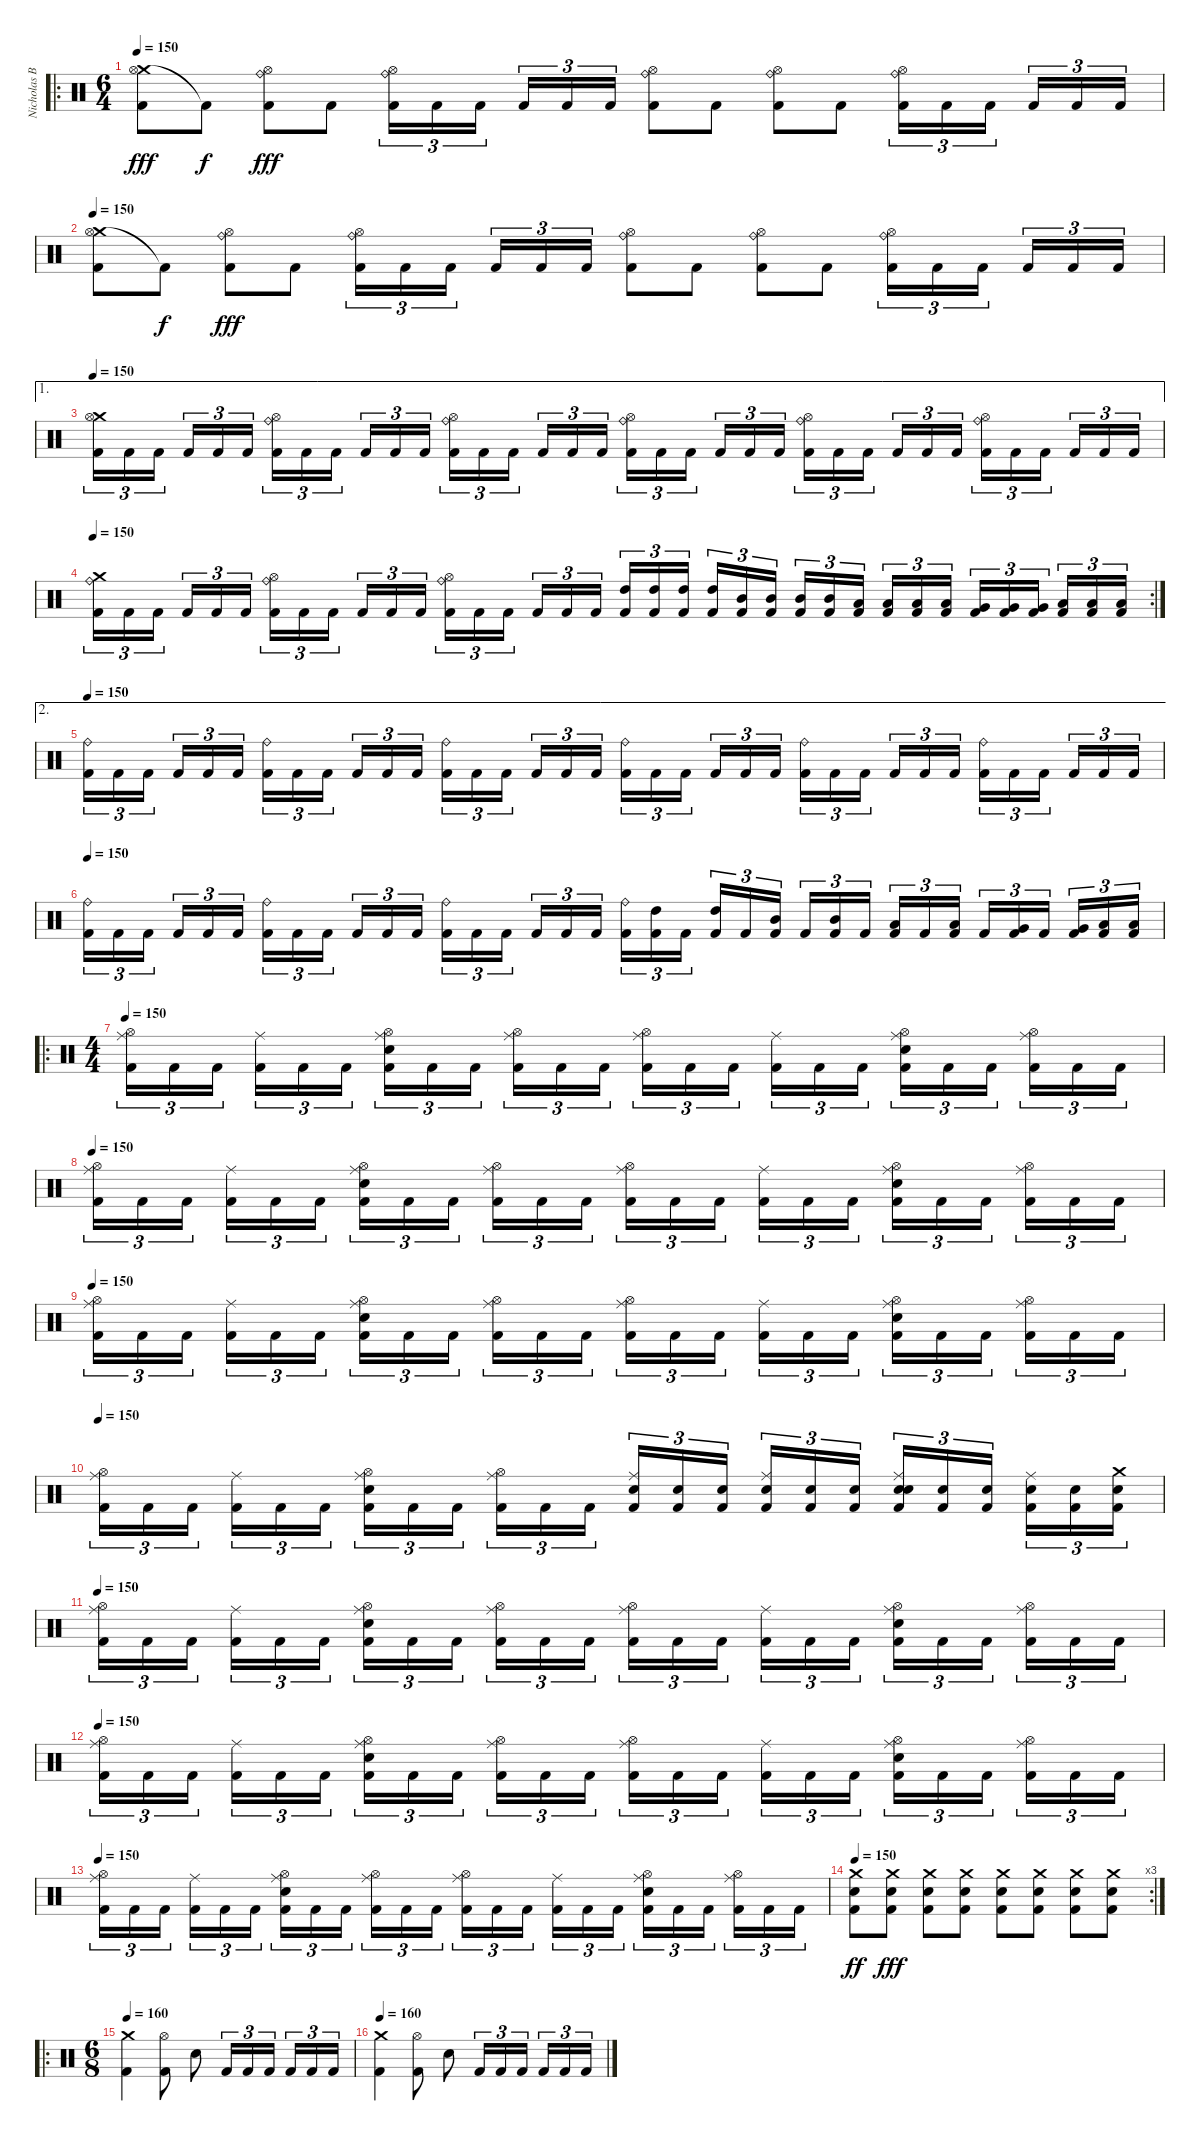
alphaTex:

\track ("Nicholas Barker - (Drums And Percussion)" "Nicholas B") {instrument percussion}
\staff {score}
\articulation defaults
\ro
\ts (6 4)
\tempo 150
\clef neutral
\ks c
("Crash medium (hit)" "Hi-Hat (open)" "Kick (hit) 2").8{dy fff} "Kick (hit) 2"{t}.8{dy f} ("Ride (bell)" "Hi-Hat (open)" "Kick (hit) 2").8{dy fff} "Kick (hit) 2".8 ("Ride (bell)" "Hi-Hat (open)" "Kick (hit) 2").16{tu (3 2)} "Kick (hit) 2".16{tu (3 2)} "Kick (hit) 2".16{tu (3 2)} "Kick (hit) 2".16{tu (3 2)} "Kick (hit) 2".16{tu (3 2)} "Kick (hit) 2".16{tu (3 2)} ("Ride (bell)" "Hi-Hat (open)" "Kick (hit) 2").8 "Kick (hit) 2".8 ("Ride (bell)" "Hi-Hat (open)" "Kick (hit) 2").8 "Kick (hit) 2".8 ("Ride (bell)" "Hi-Hat (open)" "Kick (hit) 2").16{tu (3 2)} "Kick (hit) 2".16{tu (3 2)} "Kick (hit) 2".16{tu (3 2)} "Kick (hit) 2".16{tu (3 2)} "Kick (hit) 2".16{tu (3 2)} "Kick (hit) 2".16{tu (3 2)} |
\tempo 150
("Crash medium (hit)" "Hi-Hat (open)" "Kick (hit) 2").8 "Kick (hit) 2"{t}.8{dy f} ("Ride (bell)" "Hi-Hat (open)" "Kick (hit) 2").8{dy fff} "Kick (hit) 2".8 ("Ride (bell)" "Hi-Hat (open)" "Kick (hit) 2").16{tu (3 2)} "Kick (hit) 2".16{tu (3 2)} "Kick (hit) 2".16{tu (3 2)} "Kick (hit) 2".16{tu (3 2)} "Kick (hit) 2".16{tu (3 2)} "Kick (hit) 2".16{tu (3 2)} ("Ride (bell)" "Hi-Hat (open)" "Kick (hit) 2").8 "Kick (hit) 2".8 ("Ride (bell)" "Hi-Hat (open)" "Kick (hit) 2").8 "Kick (hit) 2".8 ("Ride (bell)" "Hi-Hat (open)" "Kick (hit) 2").16{tu (3 2)} "Kick (hit) 2".16{tu (3 2)} "Kick (hit) 2".16{tu (3 2)} "Kick (hit) 2".16{tu (3 2)} "Kick (hit) 2".16{tu (3 2)} "Kick (hit) 2".16{tu (3 2)} |
\ae 1
\tempo 150
("Crash medium (hit)" "Hi-Hat (open)" "Kick (hit) 2").16{tu (3 2)} "Kick (hit) 2".16{tu (3 2)} "Kick (hit) 2".16{tu (3 2)} "Kick (hit) 2".16{tu (3 2)} "Kick (hit) 2".16{tu (3 2)} "Kick (hit) 2".16{tu (3 2)} ("Ride (bell)" "Hi-Hat (open)" "Kick (hit) 2").16{tu (3 2)} "Kick (hit) 2".16{tu (3 2)} "Kick (hit) 2".16{tu (3 2)} "Kick (hit) 2".16{tu (3 2)} "Kick (hit) 2".16{tu (3 2)} "Kick (hit) 2".16{tu (3 2)} ("Ride (bell)" "Hi-Hat (open)" "Kick (hit) 2").16{tu (3 2)} "Kick (hit) 2".16{tu (3 2)} "Kick (hit) 2".16{tu (3 2)} "Kick (hit) 2".16{tu (3 2)} "Kick (hit) 2".16{tu (3 2)} "Kick (hit) 2".16{tu (3 2)} ("Ride (bell)" "Hi-Hat (open)" "Kick (hit) 2").16{tu (3 2)} "Kick (hit) 2".16{tu (3 2)} "Kick (hit) 2".16{tu (3 2)} "Kick (hit) 2".16{tu (3 2)} "Kick (hit) 2".16{tu (3 2)} "Kick (hit) 2".16{tu (3 2)} ("Ride (bell)" "Hi-Hat (open)" "Kick (hit) 2").16{tu (3 2)} "Kick (hit) 2".16{tu (3 2)} "Kick (hit) 2".16{tu (3 2)} "Kick (hit) 2".16{tu (3 2)} "Kick (hit) 2".16{tu (3 2)} "Kick (hit) 2".16{tu (3 2)} ("Ride (bell)" "Hi-Hat (open)" "Kick (hit) 2").16{tu (3 2)} "Kick (hit) 2".16{tu (3 2)} "Kick (hit) 2".16{tu (3 2)} "Kick (hit) 2".16{tu (3 2)} "Kick (hit) 2".16{tu (3 2)} "Kick (hit) 2".16{tu (3 2)} |
\rc 2
\tempo 150
("Crash medium (hit)" "Ride (bell)" "Kick (hit) 2").16{tu (3 2)} "Kick (hit) 2".16{tu (3 2)} "Kick (hit) 2".16{tu (3 2)} "Kick (hit) 2".16{tu (3 2)} "Kick (hit) 2".16{tu (3 2)} "Kick (hit) 2".16{tu (3 2)} ("Hi-Hat (open)" "Ride (bell)" "Kick (hit) 2").16{tu (3 2)} "Kick (hit) 2".16{tu (3 2)} "Kick (hit) 2".16{tu (3 2)} "Kick (hit) 2".16{tu (3 2)} "Kick (hit) 2".16{tu (3 2)} "Kick (hit) 2".16{tu (3 2)} ("Hi-Hat (open)" "Ride (bell)" "Kick (hit) 2").16{tu (3 2)} "Kick (hit) 2".16{tu (3 2)} "Kick (hit) 2".16{tu (3 2)} "Kick (hit) 2".16{tu (3 2)} "Kick (hit) 2".16{tu (3 2)} "Kick (hit) 2".16{tu (3 2)} ("High Tom (hit)" "Kick (hit) 2").16{tu (3 2)} ("High Tom (hit)" "Kick (hit) 2").16{tu (3 2)} ("High Tom (hit)" "Kick (hit) 2").16{tu (3 2)} ("High Tom (hit)" "Kick (hit) 2").16{tu (3 2)} ("Mid Tom (hit)" "Kick (hit) 2").16{tu (3 2)} ("Mid Tom (hit)" "Kick (hit) 2").16{tu (3 2)} ("Mid Tom (hit)" "Kick (hit) 2").16{tu (3 2)} ("Mid Tom (hit)" "Kick (hit) 2").16{tu (3 2)} ("Low Tom (hit)" "Kick (hit) 2").16{tu (3 2)} ("Low Tom (hit)" "Kick (hit) 2").16{tu (3 2)} ("Low Tom (hit)" "Kick (hit) 2").16{tu (3 2)} ("Low Tom (hit)" "Kick (hit) 2").16{tu (3 2)} ("Very Low Tom (hit)" "Kick (hit) 2").16{tu (3 2)} ("Very Low Tom (hit)" "Kick (hit) 2").16{tu (3 2)} ("Very Low Tom (hit)" "Kick (hit) 2").16{tu (3 2)} ("Low Floor Tom (hit)" "Kick (hit) 2").16{tu (3 2)} ("Low Floor Tom (hit)" "Kick (hit) 2").16{tu (3 2)} ("Low Floor Tom (hit)" "Kick (hit) 2").16{tu (3 2)} |
\ae 2
\tempo 150
("Ride (bell)" "Kick (hit) 2").16{tu (3 2)} "Kick (hit) 2".16{tu (3 2)} "Kick (hit) 2".16{tu (3 2)} "Kick (hit) 2".16{tu (3 2)} "Kick (hit) 2".16{tu (3 2)} "Kick (hit) 2".16{tu (3 2)} ("Ride (bell)" "Kick (hit) 2").16{tu (3 2)} "Kick (hit) 2".16{tu (3 2)} "Kick (hit) 2".16{tu (3 2)} "Kick (hit) 2".16{tu (3 2)} "Kick (hit) 2".16{tu (3 2)} "Kick (hit) 2".16{tu (3 2)} ("Ride (bell)" "Kick (hit) 2").16{tu (3 2)} "Kick (hit) 2".16{tu (3 2)} "Kick (hit) 2".16{tu (3 2)} "Kick (hit) 2".16{tu (3 2)} "Kick (hit) 2".16{tu (3 2)} "Kick (hit) 2".16{tu (3 2)} ("Ride (bell)" "Kick (hit) 2").16{tu (3 2)} "Kick (hit) 2".16{tu (3 2)} "Kick (hit) 2".16{tu (3 2)} "Kick (hit) 2".16{tu (3 2)} "Kick (hit) 2".16{tu (3 2)} "Kick (hit) 2".16{tu (3 2)} ("Ride (bell)" "Kick (hit) 2").16{tu (3 2)} "Kick (hit) 2".16{tu (3 2)} "Kick (hit) 2".16{tu (3 2)} "Kick (hit) 2".16{tu (3 2)} "Kick (hit) 2".16{tu (3 2)} "Kick (hit) 2".16{tu (3 2)} ("Ride (bell)" "Kick (hit) 2").16{tu (3 2)} "Kick (hit) 2".16{tu (3 2)} "Kick (hit) 2".16{tu (3 2)} "Kick (hit) 2".16{tu (3 2)} "Kick (hit) 2".16{tu (3 2)} "Kick (hit) 2".16{tu (3 2)} |
\tempo 150
("Ride (bell)" "Kick (hit) 2").16{tu (3 2)} "Kick (hit) 2".16{tu (3 2)} "Kick (hit) 2".16{tu (3 2)} "Kick (hit) 2".16{tu (3 2)} "Kick (hit) 2".16{tu (3 2)} "Kick (hit) 2".16{tu (3 2)} ("Ride (bell)" "Kick (hit) 2").16{tu (3 2)} "Kick (hit) 2".16{tu (3 2)} "Kick (hit) 2".16{tu (3 2)} "Kick (hit) 2".16{tu (3 2)} "Kick (hit) 2".16{tu (3 2)} "Kick (hit) 2".16{tu (3 2)} ("Ride (bell)" "Kick (hit) 2").16{tu (3 2)} "Kick (hit) 2".16{tu (3 2)} "Kick (hit) 2".16{tu (3 2)} "Kick (hit) 2".16{tu (3 2)} "Kick (hit) 2".16{tu (3 2)} "Kick (hit) 2".16{tu (3 2)} ("Ride (bell)" "Kick (hit) 2").16{tu (3 2)} ("High Tom (hit)" "Kick (hit) 2").16{tu (3 2)} "Kick (hit) 2".16{tu (3 2)} ("High Tom (hit)" "Kick (hit) 2").16{tu (3 2)} "Kick (hit) 2".16{tu (3 2)} ("Mid Tom (hit)" "Kick (hit) 2").16{tu (3 2)} "Kick (hit) 2".16{tu (3 2)} ("Mid Tom (hit)" "Kick (hit) 2").16{tu (3 2)} "Kick (hit) 2".16{tu (3 2)} ("Low Tom (hit)" "Kick (hit) 2").16{tu (3 2)} "Kick (hit) 2".16{tu (3 2)} ("Low Tom (hit)" "Kick (hit) 2").16{tu (3 2)} "Kick (hit) 2".16{tu (3 2)} ("Very Low Tom (hit)" "Kick (hit) 2").16{tu (3 2)} "Kick (hit) 2".16{tu (3 2)} ("Very Low Tom (hit)" "Kick (hit) 2").16{tu (3 2)} ("Low Floor Tom (hit)" "Kick (hit) 2").16{tu (3 2)} ("Low Floor Tom (hit)" "Kick (hit) 2").16{tu (3 2)} |
\ro
\ts (4 4)
\tempo 150
("Hi-Hat (open)" "Ride (middle)" "Kick (hit) 2").16{tu (3 2)} "Kick (hit) 2".16{tu (3 2)} "Kick (hit) 2".16{tu (3 2)} ("Ride (middle)" "Kick (hit) 2").16{tu (3 2)} "Kick (hit) 2".16{tu (3 2)} "Kick (hit) 2".16{tu (3 2)} ("Hi-Hat (open)" "Electric Snare (hit)" "Ride (middle)" "Kick (hit) 2").16{tu (3 2)} "Kick (hit) 2".16{tu (3 2)} "Kick (hit) 2".16{tu (3 2)} ("Hi-Hat (open)" "Ride (middle)" "Kick (hit) 2").16{tu (3 2)} "Kick (hit) 2".16{tu (3 2)} "Kick (hit) 2".16{tu (3 2)} ("Hi-Hat (open)" "Ride (middle)" "Kick (hit) 2").16{tu (3 2)} "Kick (hit) 2".16{tu (3 2)} "Kick (hit) 2".16{tu (3 2)} ("Ride (middle)" "Kick (hit) 2").16{tu (3 2)} "Kick (hit) 2".16{tu (3 2)} "Kick (hit) 2".16{tu (3 2)} ("Hi-Hat (open)" "Electric Snare (hit)" "Ride (middle)" "Kick (hit) 2").16{tu (3 2)} "Kick (hit) 2".16{tu (3 2)} "Kick (hit) 2".16{tu (3 2)} ("Hi-Hat (open)" "Ride (middle)" "Kick (hit) 2").16{tu (3 2)} "Kick (hit) 2".16{tu (3 2)} "Kick (hit) 2".16{tu (3 2)} |
\tempo 150
("Hi-Hat (open)" "Ride (middle)" "Kick (hit) 2").16{tu (3 2)} "Kick (hit) 2".16{tu (3 2)} "Kick (hit) 2".16{tu (3 2)} ("Ride (middle)" "Kick (hit) 2").16{tu (3 2)} "Kick (hit) 2".16{tu (3 2)} "Kick (hit) 2".16{tu (3 2)} ("Hi-Hat (open)" "Electric Snare (hit)" "Ride (middle)" "Kick (hit) 2").16{tu (3 2)} "Kick (hit) 2".16{tu (3 2)} "Kick (hit) 2".16{tu (3 2)} ("Hi-Hat (open)" "Ride (middle)" "Kick (hit) 2").16{tu (3 2)} "Kick (hit) 2".16{tu (3 2)} "Kick (hit) 2".16{tu (3 2)} ("Hi-Hat (open)" "Ride (middle)" "Kick (hit) 2").16{tu (3 2)} "Kick (hit) 2".16{tu (3 2)} "Kick (hit) 2".16{tu (3 2)} ("Ride (middle)" "Kick (hit) 2").16{tu (3 2)} "Kick (hit) 2".16{tu (3 2)} "Kick (hit) 2".16{tu (3 2)} ("Hi-Hat (open)" "Electric Snare (hit)" "Ride (middle)" "Kick (hit) 2").16{tu (3 2)} "Kick (hit) 2".16{tu (3 2)} "Kick (hit) 2".16{tu (3 2)} ("Hi-Hat (open)" "Ride (middle)" "Kick (hit) 2").16{tu (3 2)} "Kick (hit) 2".16{tu (3 2)} "Kick (hit) 2".16{tu (3 2)} |
\tempo 150
("Hi-Hat (open)" "Ride (middle)" "Kick (hit) 2").16{tu (3 2)} "Kick (hit) 2".16{tu (3 2)} "Kick (hit) 2".16{tu (3 2)} ("Ride (middle)" "Kick (hit) 2").16{tu (3 2)} "Kick (hit) 2".16{tu (3 2)} "Kick (hit) 2".16{tu (3 2)} ("Hi-Hat (open)" "Electric Snare (hit)" "Ride (middle)" "Kick (hit) 2").16{tu (3 2)} "Kick (hit) 2".16{tu (3 2)} "Kick (hit) 2".16{tu (3 2)} ("Hi-Hat (open)" "Ride (middle)" "Kick (hit) 2").16{tu (3 2)} "Kick (hit) 2".16{tu (3 2)} "Kick (hit) 2".16{tu (3 2)} ("Hi-Hat (open)" "Ride (middle)" "Kick (hit) 2").16{tu (3 2)} "Kick (hit) 2".16{tu (3 2)} "Kick (hit) 2".16{tu (3 2)} ("Ride (middle)" "Kick (hit) 2").16{tu (3 2)} "Kick (hit) 2".16{tu (3 2)} "Kick (hit) 2".16{tu (3 2)} ("Hi-Hat (open)" "Electric Snare (hit)" "Ride (middle)" "Kick (hit) 2").16{tu (3 2)} "Kick (hit) 2".16{tu (3 2)} "Kick (hit) 2".16{tu (3 2)} ("Hi-Hat (open)" "Ride (middle)" "Kick (hit) 2").16{tu (3 2)} "Kick (hit) 2".16{tu (3 2)} "Kick (hit) 2".16{tu (3 2)} |
\tempo 150
("Hi-Hat (open)" "Ride (middle)" "Kick (hit) 2").16{tu (3 2)} "Kick (hit) 2".16{tu (3 2)} "Kick (hit) 2".16{tu (3 2)} ("Ride (middle)" "Kick (hit) 2").16{tu (3 2)} "Kick (hit) 2".16{tu (3 2)} "Kick (hit) 2".16{tu (3 2)} ("Hi-Hat (open)" "Electric Snare (hit)" "Ride (middle)" "Kick (hit) 2").16{tu (3 2)} "Kick (hit) 2".16{tu (3 2)} "Kick (hit) 2".16{tu (3 2)} ("Hi-Hat (open)" "Ride (middle)" "Kick (hit) 2").16{tu (3 2)} "Kick (hit) 2".16{tu (3 2)} "Kick (hit) 2".16{tu (3 2)} ("Electric Snare (hit)" "Ride (middle)" "Kick (hit) 2").16{tu (3 2)} ("Electric Snare (hit)" "Kick (hit) 2").16{tu (3 2)} ("Electric Snare (hit)" "Kick (hit) 2").16{tu (3 2)} ("Electric Snare (hit)" "Ride (middle)" "Kick (hit) 2").16{tu (3 2)} ("Electric Snare (hit)" "Kick (hit) 2").16{tu (3 2)} ("Electric Snare (hit)" "Kick (hit) 2").16{tu (3 2)} ("Electric Snare (hit)" "Electric Snare (hit)" "Ride (middle)" "Kick (hit) 2").16{tu (3 2)} ("Electric Snare (hit)" "Kick (hit) 2").16{tu (3 2)} ("Electric Snare (hit)" "Kick (hit) 2").16{tu (3 2)} ("Electric Snare (hit)" "Ride (middle)" "Kick (hit) 2").16{tu (3 2)} ("Electric Snare (hit)" "Kick (hit) 2").16{tu (3 2)} ("Electric Snare (hit)" "Crash medium (hit)" "Kick (hit) 2").16{tu (3 2)} |
\tempo 150
("Hi-Hat (open)" "Ride (middle)" "Kick (hit) 2").16{tu (3 2)} "Kick (hit) 2".16{tu (3 2)} "Kick (hit) 2".16{tu (3 2)} ("Ride (middle)" "Kick (hit) 2").16{tu (3 2)} "Kick (hit) 2".16{tu (3 2)} "Kick (hit) 2".16{tu (3 2)} ("Hi-Hat (open)" "Electric Snare (hit)" "Ride (middle)" "Kick (hit) 2").16{tu (3 2)} "Kick (hit) 2".16{tu (3 2)} "Kick (hit) 2".16{tu (3 2)} ("Hi-Hat (open)" "Ride (middle)" "Kick (hit) 2").16{tu (3 2)} "Kick (hit) 2".16{tu (3 2)} "Kick (hit) 2".16{tu (3 2)} ("Hi-Hat (open)" "Ride (middle)" "Kick (hit) 2").16{tu (3 2)} "Kick (hit) 2".16{tu (3 2)} "Kick (hit) 2".16{tu (3 2)} ("Ride (middle)" "Kick (hit) 2").16{tu (3 2)} "Kick (hit) 2".16{tu (3 2)} "Kick (hit) 2".16{tu (3 2)} ("Hi-Hat (open)" "Electric Snare (hit)" "Ride (middle)" "Kick (hit) 2").16{tu (3 2)} "Kick (hit) 2".16{tu (3 2)} "Kick (hit) 2".16{tu (3 2)} ("Hi-Hat (open)" "Ride (middle)" "Kick (hit) 2").16{tu (3 2)} "Kick (hit) 2".16{tu (3 2)} "Kick (hit) 2".16{tu (3 2)} |
\tempo 150
("Hi-Hat (open)" "Ride (middle)" "Kick (hit) 2").16{tu (3 2)} "Kick (hit) 2".16{tu (3 2)} "Kick (hit) 2".16{tu (3 2)} ("Ride (middle)" "Kick (hit) 2").16{tu (3 2)} "Kick (hit) 2".16{tu (3 2)} "Kick (hit) 2".16{tu (3 2)} ("Hi-Hat (open)" "Electric Snare (hit)" "Ride (middle)" "Kick (hit) 2").16{tu (3 2)} "Kick (hit) 2".16{tu (3 2)} "Kick (hit) 2".16{tu (3 2)} ("Hi-Hat (open)" "Ride (middle)" "Kick (hit) 2").16{tu (3 2)} "Kick (hit) 2".16{tu (3 2)} "Kick (hit) 2".16{tu (3 2)} ("Hi-Hat (open)" "Ride (middle)" "Kick (hit) 2").16{tu (3 2)} "Kick (hit) 2".16{tu (3 2)} "Kick (hit) 2".16{tu (3 2)} ("Ride (middle)" "Kick (hit) 2").16{tu (3 2)} "Kick (hit) 2".16{tu (3 2)} "Kick (hit) 2".16{tu (3 2)} ("Hi-Hat (open)" "Electric Snare (hit)" "Ride (middle)" "Kick (hit) 2").16{tu (3 2)} "Kick (hit) 2".16{tu (3 2)} "Kick (hit) 2".16{tu (3 2)} ("Hi-Hat (open)" "Ride (middle)" "Kick (hit) 2").16{tu (3 2)} "Kick (hit) 2".16{tu (3 2)} "Kick (hit) 2".16{tu (3 2)} |
\tempo 150
("Hi-Hat (open)" "Ride (middle)" "Kick (hit) 2").16{tu (3 2)} "Kick (hit) 2".16{tu (3 2)} "Kick (hit) 2".16{tu (3 2)} ("Ride (middle)" "Kick (hit) 2").16{tu (3 2)} "Kick (hit) 2".16{tu (3 2)} "Kick (hit) 2".16{tu (3 2)} ("Hi-Hat (open)" "Electric Snare (hit)" "Ride (middle)" "Kick (hit) 2").16{tu (3 2)} "Kick (hit) 2".16{tu (3 2)} "Kick (hit) 2".16{tu (3 2)} ("Hi-Hat (open)" "Ride (middle)" "Kick (hit) 2").16{tu (3 2)} "Kick (hit) 2".16{tu (3 2)} "Kick (hit) 2".16{tu (3 2)} ("Hi-Hat (open)" "Ride (middle)" "Kick (hit) 2").16{tu (3 2)} "Kick (hit) 2".16{tu (3 2)} "Kick (hit) 2".16{tu (3 2)} ("Ride (middle)" "Kick (hit) 2").16{tu (3 2)} "Kick (hit) 2".16{tu (3 2)} "Kick (hit) 2".16{tu (3 2)} ("Hi-Hat (open)" "Electric Snare (hit)" "Ride (middle)" "Kick (hit) 2").16{tu (3 2)} "Kick (hit) 2".16{tu (3 2)} "Kick (hit) 2".16{tu (3 2)} ("Hi-Hat (open)" "Ride (middle)" "Kick (hit) 2").16{tu (3 2)} "Kick (hit) 2".16{tu (3 2)} "Kick (hit) 2".16{tu (3 2)} |
\rc 3
\tempo 150
("Electric Snare (hit)" "Crash medium (hit)" "Kick (hit) 2").8{dy ff} ("Electric Snare (hit)" "Crash medium (hit)" "Kick (hit) 2").8{dy fff} ("Electric Snare (hit)" "Crash medium (hit)" "Kick (hit) 2").8 ("Electric Snare (hit)" "Crash medium (hit)" "Kick (hit) 2").8 ("Electric Snare (hit)" "Crash medium (hit)" "Kick (hit) 2").8 ("Electric Snare (hit)" "Crash medium (hit)" "Kick (hit) 2").8 ("Electric Snare (hit)" "Crash medium (hit)" "Kick (hit) 2").8 ("Electric Snare (hit)" "Crash medium (hit)" "Kick (hit) 2").8 |
\ro
\ts (6 8)
\tempo 140
\tempo 160
("Crash medium (hit)" "Kick (hit) 2").4 ("Hi-Hat (open)" "Kick (hit) 2").8 "Electric Snare (hit)".8 "Kick (hit) 2".16{tu (3 2)} "Kick (hit) 2".16{tu (3 2)} "Kick (hit) 2".16{tu (3 2)} "Kick (hit) 2".16{tu (3 2)} "Kick (hit) 2".16{tu (3 2)} "Kick (hit) 2".16{tu (3 2)} |
\tempo 160
("Crash medium (hit)" "Kick (hit) 2").4 ("Hi-Hat (open)" "Kick (hit) 2").8 "Electric Snare (hit)".8 "Kick (hit) 2".16{tu (3 2)} "Kick (hit) 2".16{tu (3 2)} "Kick (hit) 2".16{tu (3 2)} "Kick (hit) 2".16{tu (3 2)} "Kick (hit) 2".16{tu (3 2)} "Kick (hit) 2".16{tu (3 2)}
